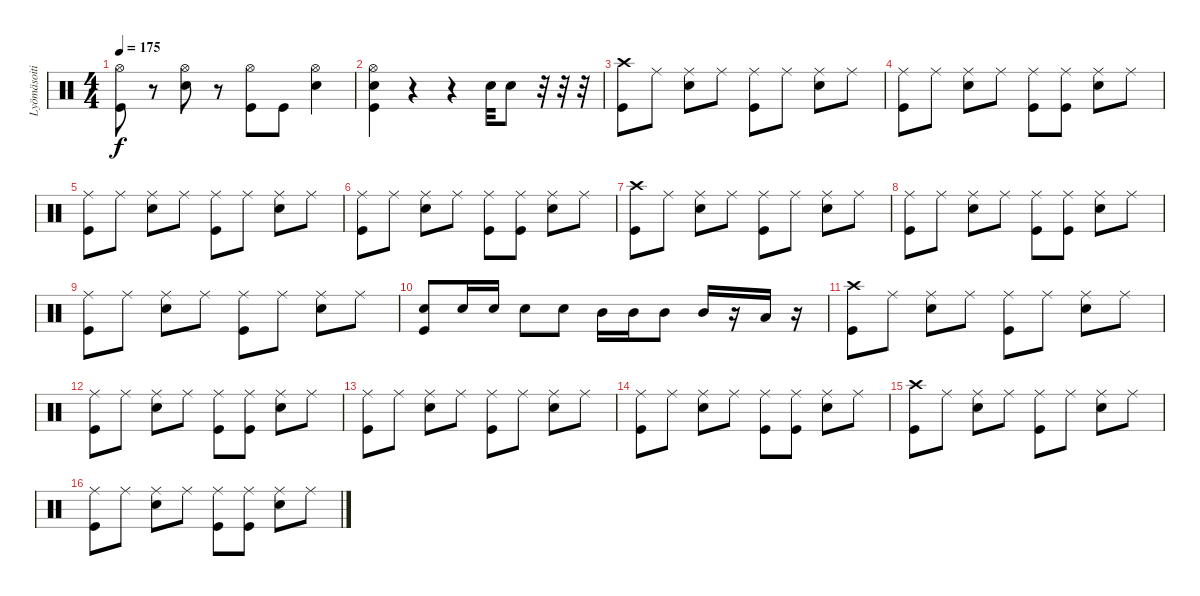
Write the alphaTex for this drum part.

\track ("Lyömäsoitin" "Lyömäsoiti") {instrument percussion}
\staff {score}
\articulation defaults
\ts (4 4)
\tempo 175
\clef neutral
\ks c
("Hi-Hat (open)" "Kick (hit)").8{dy f} r.8 ("Hi-Hat (open)" "Electric Snare (hit)").8 r.8 ("Hi-Hat (open)" "Kick (hit)").8 "Kick (hit)".8 ("Hi-Hat (open)" "Electric Snare (hit)").4 |
("Hi-Hat (open)" "Electric Snare (hit)" "Kick (hit)").4 r.4 r.4 "Electric Snare (hit)".32 "Electric Snare (hit)".8 r.32 r.32 r.32 |
("Crash high (hit)" "Kick (hit)").8 "Ride (middle)".8 ("Ride (middle)" "Electric Snare (hit)").8 "Ride (middle)".8 ("Ride (middle)" "Kick (hit)").8 "Ride (middle)".8 ("Ride (middle)" "Electric Snare (hit)").8 "Ride (middle)".8 |
("Ride (middle)" "Kick (hit)").8 "Ride (middle)".8 ("Ride (middle)" "Electric Snare (hit)").8 "Ride (middle)".8 ("Ride (middle)" "Kick (hit)").8 ("Ride (middle)" "Kick (hit)").8 ("Ride (middle)" "Electric Snare (hit)").8 "Ride (middle)".8 |
("Ride (middle)" "Kick (hit)").8 "Ride (middle)".8 ("Ride (middle)" "Electric Snare (hit)").8 "Ride (middle)".8 ("Ride (middle)" "Kick (hit)").8 "Ride (middle)".8 ("Ride (middle)" "Electric Snare (hit)").8 "Ride (middle)".8 |
("Ride (middle)" "Kick (hit)").8 "Ride (middle)".8 ("Ride (middle)" "Electric Snare (hit)").8 "Ride (middle)".8 ("Ride (middle)" "Kick (hit)").8 ("Ride (middle)" "Kick (hit)").8 ("Ride (middle)" "Electric Snare (hit)").8 "Ride (middle)".8 |
("Crash high (hit)" "Kick (hit)").8 "Ride (middle)".8 ("Ride (middle)" "Electric Snare (hit)").8 "Ride (middle)".8 ("Ride (middle)" "Kick (hit)").8 "Ride (middle)".8 ("Ride (middle)" "Electric Snare (hit)").8 "Ride (middle)".8 |
("Ride (middle)" "Kick (hit)").8 "Ride (middle)".8 ("Ride (middle)" "Electric Snare (hit)").8 "Ride (middle)".8 ("Ride (middle)" "Kick (hit)").8 ("Ride (middle)" "Kick (hit)").8 ("Ride (middle)" "Electric Snare (hit)").8 "Ride (middle)".8 |
("Ride (middle)" "Kick (hit)").8 "Ride (middle)".8 ("Ride (middle)" "Electric Snare (hit)").8 "Ride (middle)".8 ("Ride (middle)" "Kick (hit)").8 "Ride (middle)".8 ("Ride (middle)" "Electric Snare (hit)").8 "Ride (middle)".8 |
("Electric Snare (hit)" "Kick (hit)").8 "Electric Snare (hit)".16 "Electric Snare (hit)".16 "Electric Snare (hit)".8 "Electric Snare (hit)".8 "Mid Tom (hit)".16 "Mid Tom (hit)".16 "Mid Tom (hit)".8 "Mid Tom (hit)".16 r.16 "Low Tom (hit)".16 r.16 |
("Crash high (hit)" "Kick (hit)").8 "Ride (middle)".8 ("Ride (middle)" "Electric Snare (hit)").8 "Ride (middle)".8 ("Ride (middle)" "Kick (hit)").8 "Ride (middle)".8 ("Ride (middle)" "Electric Snare (hit)").8 "Ride (middle)".8 |
("Ride (middle)" "Kick (hit)").8 "Ride (middle)".8 ("Ride (middle)" "Electric Snare (hit)").8 "Ride (middle)".8 ("Ride (middle)" "Kick (hit)").8 ("Ride (middle)" "Kick (hit)").8 ("Ride (middle)" "Electric Snare (hit)").8 "Ride (middle)".8 |
("Ride (middle)" "Kick (hit)").8 "Ride (middle)".8 ("Ride (middle)" "Electric Snare (hit)").8 "Ride (middle)".8 ("Ride (middle)" "Kick (hit)").8 "Ride (middle)".8 ("Ride (middle)" "Electric Snare (hit)").8 "Ride (middle)".8 |
("Ride (middle)" "Kick (hit)").8 "Ride (middle)".8 ("Ride (middle)" "Electric Snare (hit)").8 "Ride (middle)".8 ("Ride (middle)" "Kick (hit)").8 ("Ride (middle)" "Kick (hit)").8 ("Ride (middle)" "Electric Snare (hit)").8 "Ride (middle)".8 |
("Crash high (hit)" "Kick (hit)").8 "Ride (middle)".8 ("Ride (middle)" "Electric Snare (hit)").8 "Ride (middle)".8 ("Ride (middle)" "Kick (hit)").8 "Ride (middle)".8 ("Ride (middle)" "Electric Snare (hit)").8 "Ride (middle)".8 |
("Ride (middle)" "Kick (hit)").8 "Ride (middle)".8 ("Ride (middle)" "Electric Snare (hit)").8 "Ride (middle)".8 ("Ride (middle)" "Kick (hit)").8 ("Ride (middle)" "Kick (hit)").8 ("Ride (middle)" "Electric Snare (hit)").8 "Ride (middle)".8
